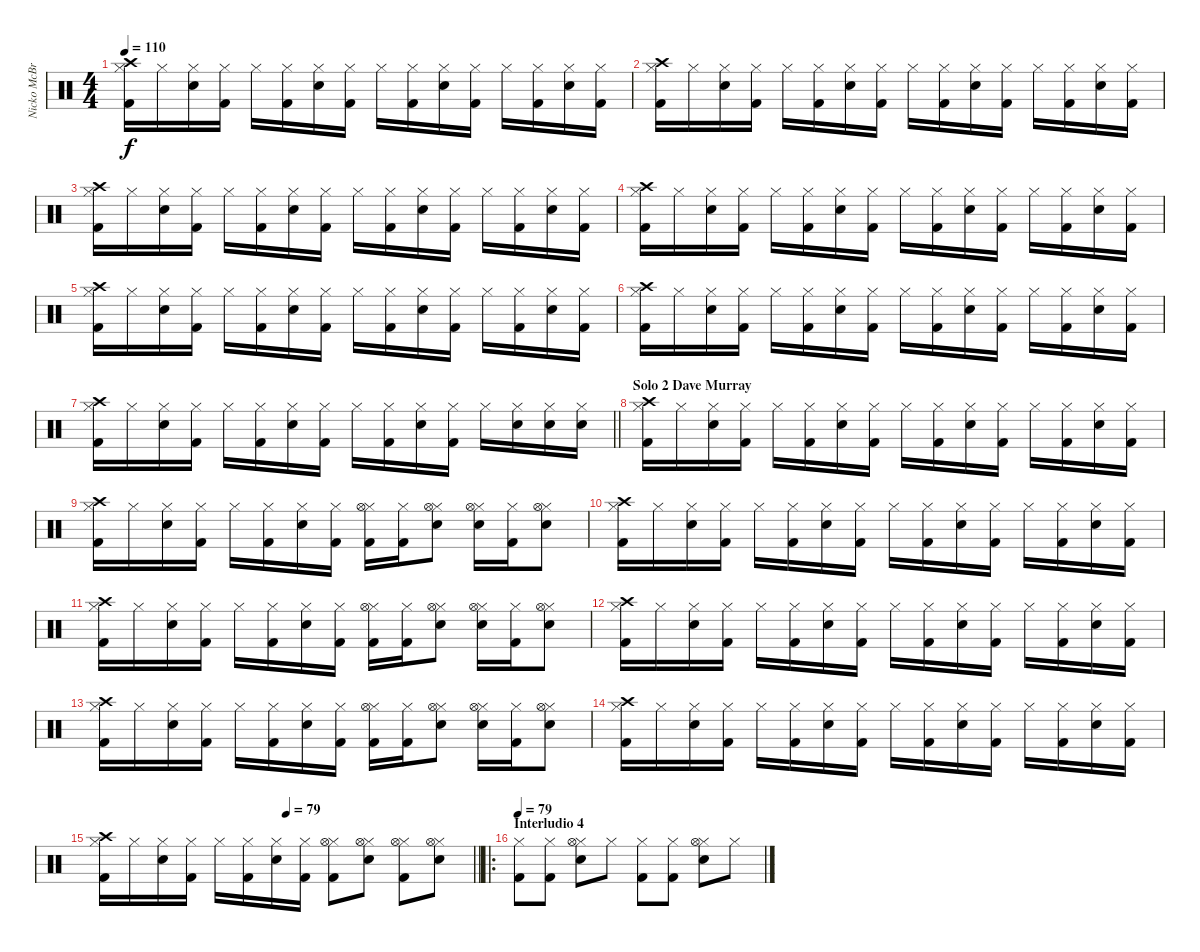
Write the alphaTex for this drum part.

\track ("Nicko McBrain" "Nicko McBr") {instrument percussion}
\staff {score}
\articulation defaults
\ts (4 4)
\tempo 110
\clef neutral
\ks c
("Kick (hit) 2" "Hi-Hat (closed)" "Crash high (hit)").16{dy f} "Hi-Hat (closed)".16 ("Snare (hit) 2" "Hi-Hat (closed)").16 ("Kick (hit) 2" "Hi-Hat (closed)").16 "Hi-Hat (closed)".16 ("Kick (hit) 2" "Hi-Hat (closed)").16 ("Snare (hit) 2" "Hi-Hat (closed)").16 ("Kick (hit) 2" "Hi-Hat (closed)").16 "Hi-Hat (closed)".16 ("Kick (hit) 2" "Hi-Hat (closed)").16 ("Snare (hit) 2" "Hi-Hat (closed)").16 ("Kick (hit) 2" "Hi-Hat (closed)").16 "Hi-Hat (closed)".16 ("Kick (hit) 2" "Hi-Hat (closed)").16 ("Snare (hit) 2" "Hi-Hat (closed)").16 ("Kick (hit) 2" "Hi-Hat (closed)").16 |
("Kick (hit) 2" "Hi-Hat (closed)" "Crash high (hit)").16 "Hi-Hat (closed)".16 ("Snare (hit) 2" "Hi-Hat (closed)").16 ("Kick (hit) 2" "Hi-Hat (closed)").16 "Hi-Hat (closed)".16 ("Kick (hit) 2" "Hi-Hat (closed)").16 ("Snare (hit) 2" "Hi-Hat (closed)").16 ("Kick (hit) 2" "Hi-Hat (closed)").16 "Hi-Hat (closed)".16 ("Kick (hit) 2" "Hi-Hat (closed)").16 ("Snare (hit) 2" "Hi-Hat (closed)").16 ("Kick (hit) 2" "Hi-Hat (closed)").16 "Hi-Hat (closed)".16 ("Kick (hit) 2" "Hi-Hat (closed)").16 ("Snare (hit) 2" "Hi-Hat (closed)").16 ("Kick (hit) 2" "Hi-Hat (closed)").16 |
("Kick (hit) 2" "Hi-Hat (closed)" "Crash high (hit)").16 "Hi-Hat (closed)".16 ("Snare (hit) 2" "Hi-Hat (closed)").16 ("Kick (hit) 2" "Hi-Hat (closed)").16 "Hi-Hat (closed)".16 ("Kick (hit) 2" "Hi-Hat (closed)").16 ("Snare (hit) 2" "Hi-Hat (closed)").16 ("Kick (hit) 2" "Hi-Hat (closed)").16 "Hi-Hat (closed)".16 ("Kick (hit) 2" "Hi-Hat (closed)").16 ("Snare (hit) 2" "Hi-Hat (closed)").16 ("Kick (hit) 2" "Hi-Hat (closed)").16 "Hi-Hat (closed)".16 ("Kick (hit) 2" "Hi-Hat (closed)").16 ("Snare (hit) 2" "Hi-Hat (closed)").16 ("Kick (hit) 2" "Hi-Hat (closed)").16 |
("Kick (hit) 2" "Hi-Hat (closed)" "Crash high (hit)").16 "Hi-Hat (closed)".16 ("Snare (hit) 2" "Hi-Hat (closed)").16 ("Kick (hit) 2" "Hi-Hat (closed)").16 "Hi-Hat (closed)".16 ("Kick (hit) 2" "Hi-Hat (closed)").16 ("Snare (hit) 2" "Hi-Hat (closed)").16 ("Kick (hit) 2" "Hi-Hat (closed)").16 "Hi-Hat (closed)".16 ("Kick (hit) 2" "Hi-Hat (closed)").16 ("Snare (hit) 2" "Hi-Hat (closed)").16 ("Kick (hit) 2" "Hi-Hat (closed)").16 "Hi-Hat (closed)".16 ("Kick (hit) 2" "Hi-Hat (closed)").16 ("Snare (hit) 2" "Hi-Hat (closed)").16 ("Kick (hit) 2" "Hi-Hat (closed)").16 |
("Kick (hit) 2" "Hi-Hat (closed)" "Crash high (hit)").16 "Hi-Hat (closed)".16 ("Snare (hit) 2" "Hi-Hat (closed)").16 ("Kick (hit) 2" "Hi-Hat (closed)").16 "Hi-Hat (closed)".16 ("Kick (hit) 2" "Hi-Hat (closed)").16 ("Snare (hit) 2" "Hi-Hat (closed)").16 ("Kick (hit) 2" "Hi-Hat (closed)").16 "Hi-Hat (closed)".16 ("Kick (hit) 2" "Hi-Hat (closed)").16 ("Snare (hit) 2" "Hi-Hat (closed)").16 ("Kick (hit) 2" "Hi-Hat (closed)").16 "Hi-Hat (closed)".16 ("Kick (hit) 2" "Hi-Hat (closed)").16 ("Snare (hit) 2" "Hi-Hat (closed)").16 ("Kick (hit) 2" "Hi-Hat (closed)").16 |
("Kick (hit) 2" "Hi-Hat (closed)" "Crash high (hit)").16 "Hi-Hat (closed)".16 ("Snare (hit) 2" "Hi-Hat (closed)").16 ("Kick (hit) 2" "Hi-Hat (closed)").16 "Hi-Hat (closed)".16 ("Kick (hit) 2" "Hi-Hat (closed)").16 ("Snare (hit) 2" "Hi-Hat (closed)").16 ("Kick (hit) 2" "Hi-Hat (closed)").16 "Hi-Hat (closed)".16 ("Kick (hit) 2" "Hi-Hat (closed)").16 ("Snare (hit) 2" "Hi-Hat (closed)").16 ("Kick (hit) 2" "Hi-Hat (closed)").16 "Hi-Hat (closed)".16 ("Kick (hit) 2" "Hi-Hat (closed)").16 ("Snare (hit) 2" "Hi-Hat (closed)").16 ("Kick (hit) 2" "Hi-Hat (closed)").16 |
\barLineRight lightlight
("Kick (hit) 2" "Hi-Hat (closed)" "Crash high (hit)").16 "Hi-Hat (closed)".16 ("Snare (hit) 2" "Hi-Hat (closed)").16 ("Kick (hit) 2" "Hi-Hat (closed)").16 "Hi-Hat (closed)".16 ("Kick (hit) 2" "Hi-Hat (closed)").16 ("Snare (hit) 2" "Hi-Hat (closed)").16 ("Kick (hit) 2" "Hi-Hat (closed)").16 "Hi-Hat (closed)".16 ("Kick (hit) 2" "Hi-Hat (closed)").16 ("Snare (hit) 2" "Hi-Hat (closed)").16 ("Kick (hit) 2" "Hi-Hat (closed)").16 "Hi-Hat (closed)".16 ("Snare (hit) 2" "Hi-Hat (closed)").16 ("Snare (hit) 2" "Hi-Hat (closed)").16 ("Snare (hit) 2" "Hi-Hat (closed)").16 |
\section ("" "Solo 2 Dave Murray")
("Kick (hit) 2" "Hi-Hat (closed)" "Crash high (hit)").16 "Hi-Hat (closed)".16 ("Snare (hit) 2" "Hi-Hat (closed)").16 ("Kick (hit) 2" "Hi-Hat (closed)").16 "Hi-Hat (closed)".16 ("Kick (hit) 2" "Hi-Hat (closed)").16 ("Snare (hit) 2" "Hi-Hat (closed)").16 ("Kick (hit) 2" "Hi-Hat (closed)").16 "Hi-Hat (closed)".16 ("Kick (hit) 2" "Hi-Hat (closed)").16 ("Snare (hit) 2" "Hi-Hat (closed)").16 ("Kick (hit) 2" "Hi-Hat (closed)").16 "Hi-Hat (closed)".16 ("Kick (hit) 2" "Hi-Hat (closed)").16 ("Snare (hit) 2" "Hi-Hat (closed)").16 ("Kick (hit) 2" "Hi-Hat (closed)").16 |
("Kick (hit) 2" "Hi-Hat (closed)" "Crash high (hit)").16 "Hi-Hat (closed)".16 ("Snare (hit) 2" "Hi-Hat (closed)").16 ("Kick (hit) 2" "Hi-Hat (closed)").16 "Hi-Hat (closed)".16 ("Kick (hit) 2" "Hi-Hat (closed)").16 ("Snare (hit) 2" "Hi-Hat (closed)").16 ("Kick (hit) 2" "Hi-Hat (closed)").16 ("Kick (hit) 2" "Hi-Hat (closed)" "Hi-Hat (open)").16 ("Kick (hit) 2" "Hi-Hat (closed)").16 ("Snare (hit) 2" "Hi-Hat (closed)" "Hi-Hat (open)").8 ("Snare (hit) 2" "Hi-Hat (closed)" "Hi-Hat (open)").16 ("Kick (hit) 2" "Hi-Hat (closed)").16 ("Snare (hit) 2" "Hi-Hat (closed)" "Hi-Hat (open)").8 |
("Kick (hit) 2" "Hi-Hat (closed)" "Crash high (hit)").16 "Hi-Hat (closed)".16 ("Snare (hit) 2" "Hi-Hat (closed)").16 ("Kick (hit) 2" "Hi-Hat (closed)").16 "Hi-Hat (closed)".16 ("Kick (hit) 2" "Hi-Hat (closed)").16 ("Snare (hit) 2" "Hi-Hat (closed)").16 ("Kick (hit) 2" "Hi-Hat (closed)").16 "Hi-Hat (closed)".16 ("Kick (hit) 2" "Hi-Hat (closed)").16 ("Snare (hit) 2" "Hi-Hat (closed)").16 ("Kick (hit) 2" "Hi-Hat (closed)").16 "Hi-Hat (closed)".16 ("Kick (hit) 2" "Hi-Hat (closed)").16 ("Snare (hit) 2" "Hi-Hat (closed)").16 ("Kick (hit) 2" "Hi-Hat (closed)").16 |
("Kick (hit) 2" "Hi-Hat (closed)" "Crash high (hit)").16 "Hi-Hat (closed)".16 ("Snare (hit) 2" "Hi-Hat (closed)").16 ("Kick (hit) 2" "Hi-Hat (closed)").16 "Hi-Hat (closed)".16 ("Kick (hit) 2" "Hi-Hat (closed)").16 ("Snare (hit) 2" "Hi-Hat (closed)").16 ("Kick (hit) 2" "Hi-Hat (closed)").16 ("Kick (hit) 2" "Hi-Hat (closed)" "Hi-Hat (open)").16 ("Kick (hit) 2" "Hi-Hat (closed)").16 ("Snare (hit) 2" "Hi-Hat (closed)" "Hi-Hat (open)").8 ("Snare (hit) 2" "Hi-Hat (closed)" "Hi-Hat (open)").16 ("Kick (hit) 2" "Hi-Hat (closed)").16 ("Snare (hit) 2" "Hi-Hat (closed)" "Hi-Hat (open)").8 |
("Kick (hit) 2" "Hi-Hat (closed)" "Crash high (hit)").16 "Hi-Hat (closed)".16 ("Snare (hit) 2" "Hi-Hat (closed)").16 ("Kick (hit) 2" "Hi-Hat (closed)").16 "Hi-Hat (closed)".16 ("Kick (hit) 2" "Hi-Hat (closed)").16 ("Snare (hit) 2" "Hi-Hat (closed)").16 ("Kick (hit) 2" "Hi-Hat (closed)").16 "Hi-Hat (closed)".16 ("Kick (hit) 2" "Hi-Hat (closed)").16 ("Snare (hit) 2" "Hi-Hat (closed)").16 ("Kick (hit) 2" "Hi-Hat (closed)").16 "Hi-Hat (closed)".16 ("Kick (hit) 2" "Hi-Hat (closed)").16 ("Snare (hit) 2" "Hi-Hat (closed)").16 ("Kick (hit) 2" "Hi-Hat (closed)").16 |
("Kick (hit) 2" "Hi-Hat (closed)" "Crash high (hit)").16 "Hi-Hat (closed)".16 ("Snare (hit) 2" "Hi-Hat (closed)").16 ("Kick (hit) 2" "Hi-Hat (closed)").16 "Hi-Hat (closed)".16 ("Kick (hit) 2" "Hi-Hat (closed)").16 ("Snare (hit) 2" "Hi-Hat (closed)").16 ("Kick (hit) 2" "Hi-Hat (closed)").16 ("Kick (hit) 2" "Hi-Hat (closed)" "Hi-Hat (open)").16 ("Kick (hit) 2" "Hi-Hat (closed)").16 ("Snare (hit) 2" "Hi-Hat (closed)" "Hi-Hat (open)").8 ("Snare (hit) 2" "Hi-Hat (closed)" "Hi-Hat (open)").16 ("Kick (hit) 2" "Hi-Hat (closed)").16 ("Snare (hit) 2" "Hi-Hat (closed)" "Hi-Hat (open)").8 |
("Kick (hit) 2" "Hi-Hat (closed)" "Crash high (hit)").16 "Hi-Hat (closed)".16 ("Snare (hit) 2" "Hi-Hat (closed)").16 ("Kick (hit) 2" "Hi-Hat (closed)").16 "Hi-Hat (closed)".16 ("Kick (hit) 2" "Hi-Hat (closed)").16 ("Snare (hit) 2" "Hi-Hat (closed)").16 ("Kick (hit) 2" "Hi-Hat (closed)").16 "Hi-Hat (closed)".16 ("Kick (hit) 2" "Hi-Hat (closed)").16 ("Snare (hit) 2" "Hi-Hat (closed)").16 ("Kick (hit) 2" "Hi-Hat (closed)").16 "Hi-Hat (closed)".16 ("Kick (hit) 2" "Hi-Hat (closed)").16 ("Snare (hit) 2" "Hi-Hat (closed)").16 ("Kick (hit) 2" "Hi-Hat (closed)").16 |
\tempo (79 0.5)
\barLineRight lightlight
("Kick (hit) 2" "Hi-Hat (closed)" "Crash high (hit)").16 "Hi-Hat (closed)".16 ("Snare (hit) 2" "Hi-Hat (closed)").16 ("Kick (hit) 2" "Hi-Hat (closed)").16 "Hi-Hat (closed)".16 ("Kick (hit) 2" "Hi-Hat (closed)").16 ("Snare (hit) 2" "Hi-Hat (closed)").16 ("Kick (hit) 2" "Hi-Hat (closed)").16 ("Kick (hit) 2" "Hi-Hat (closed)" "Hi-Hat (open)").8 ("Snare (hit) 2" "Hi-Hat (closed)" "Hi-Hat (open)").8 ("Kick (hit) 2" "Hi-Hat (closed)" "Hi-Hat (open)").8 ("Snare (hit) 2" "Hi-Hat (closed)" "Hi-Hat (open)").8 |
\ro
\section ("" "Interludio 4")
\tempo 79
("Kick (hit) 2" "Hi-Hat (closed)").8 ("Kick (hit) 2" "Hi-Hat (closed)").8 ("Snare (hit) 2" "Hi-Hat (closed)" "Hi-Hat (open)").8 "Hi-Hat (closed)".8 ("Kick (hit) 2" "Hi-Hat (closed)").8 ("Kick (hit) 2" "Hi-Hat (closed)").8 ("Snare (hit) 2" "Hi-Hat (closed)" "Hi-Hat (open)").8 "Hi-Hat (closed)".8
